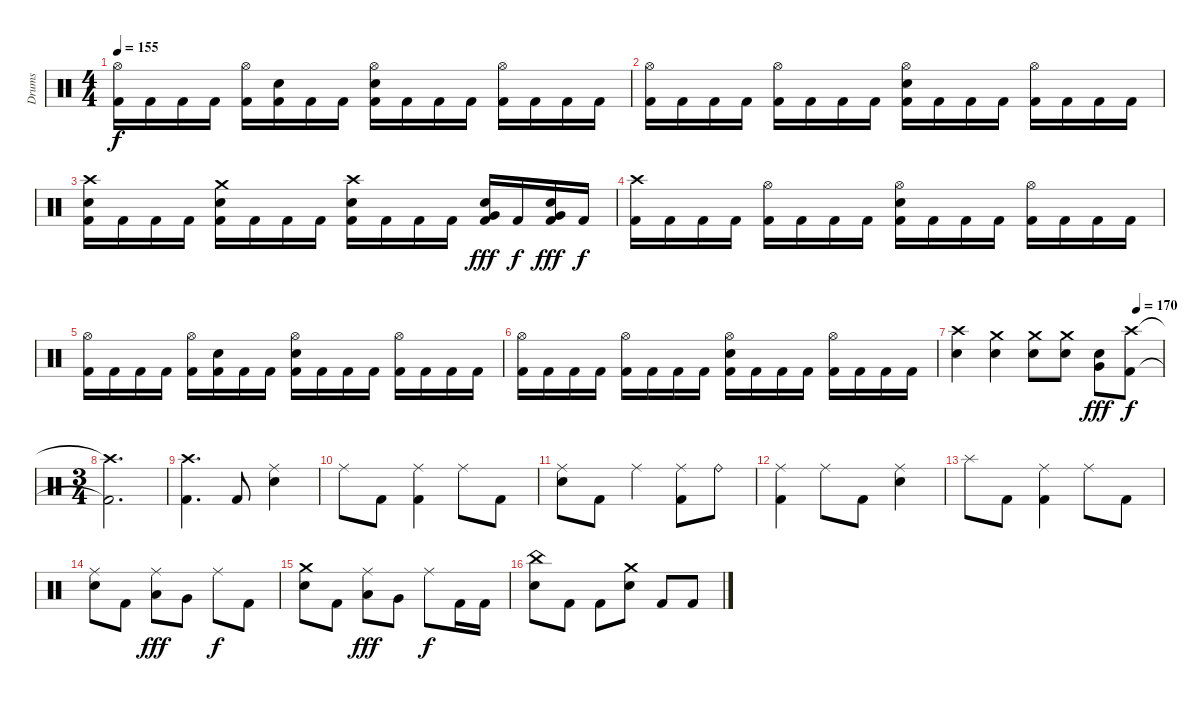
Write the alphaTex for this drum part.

\track ("Drums" "Drums") {instrument percussion}
\staff {score}
\articulation defaults
\ts (4 4)
\tempo 155
\clef neutral
\ks c
("Hi-Hat (open)" "Kick (hit) 2").16{dy f} "Kick (hit) 2".16 "Kick (hit) 2".16 "Kick (hit) 2".16 ("Hi-Hat (open)" "Kick (hit) 2").16 ("Electric Snare (hit)" "Kick (hit) 2").16 "Kick (hit) 2".16 "Kick (hit) 2".16 ("Hi-Hat (open)" "Electric Snare (hit)" "Kick (hit) 2").16 "Kick (hit) 2".16 "Kick (hit) 2".16 "Kick (hit) 2".16 ("Hi-Hat (open)" "Kick (hit) 2").16 "Kick (hit) 2".16 "Kick (hit) 2".16 "Kick (hit) 2".16 |
("Hi-Hat (open)" "Kick (hit) 2").16 "Kick (hit) 2".16 "Kick (hit) 2".16 "Kick (hit) 2".16 ("Hi-Hat (open)" "Kick (hit) 2").16 "Kick (hit) 2".16 "Kick (hit) 2".16 "Kick (hit) 2".16 ("Hi-Hat (open)" "Electric Snare (hit)" "Kick (hit) 2").16 "Kick (hit) 2".16 "Kick (hit) 2".16 "Kick (hit) 2".16 ("Hi-Hat (open)" "Kick (hit) 2").16 "Kick (hit) 2".16 "Kick (hit) 2".16 "Kick (hit) 2".16 |
("Crash high (hit)" "Electric Snare (hit)" "Kick (hit) 2").16 "Kick (hit) 2".16 "Kick (hit) 2".16 "Kick (hit) 2".16 ("Crash medium (hit)" "Electric Snare (hit)" "Kick (hit) 2").16 "Kick (hit) 2".16 "Kick (hit) 2".16 "Kick (hit) 2".16 ("Crash high (hit)" "Electric Snare (hit)" "Kick (hit) 2").16 "Kick (hit) 2".16 "Kick (hit) 2".16 "Kick (hit) 2".16 ("Electric Snare (hit)" "Very Low Tom (hit)" "Kick (hit) 2").16{dy fff} "Kick (hit) 2".16{dy f} ("Electric Snare (hit)" "Very Low Tom (hit)" "Kick (hit) 2").16{dy fff} "Kick (hit) 2".16{dy f} |
("Crash high (hit)" "Kick (hit) 2").16 "Kick (hit) 2".16 "Kick (hit) 2".16 "Kick (hit) 2".16 ("Hi-Hat (open)" "Kick (hit) 2").16 "Kick (hit) 2".16 "Kick (hit) 2".16 "Kick (hit) 2".16 ("Hi-Hat (open)" "Electric Snare (hit)" "Kick (hit) 2").16 "Kick (hit) 2".16 "Kick (hit) 2".16 "Kick (hit) 2".16 ("Hi-Hat (open)" "Kick (hit) 2").16 "Kick (hit) 2".16 "Kick (hit) 2".16 "Kick (hit) 2".16 |
("Hi-Hat (open)" "Kick (hit) 2").16 "Kick (hit) 2".16 "Kick (hit) 2".16 "Kick (hit) 2".16 ("Hi-Hat (open)" "Kick (hit) 2").16 ("Electric Snare (hit)" "Kick (hit) 2").16 "Kick (hit) 2".16 "Kick (hit) 2".16 ("Hi-Hat (open)" "Electric Snare (hit)" "Kick (hit) 2").16 "Kick (hit) 2".16 "Kick (hit) 2".16 "Kick (hit) 2".16 ("Hi-Hat (open)" "Kick (hit) 2").16 "Kick (hit) 2".16 "Kick (hit) 2".16 "Kick (hit) 2".16 |
("Hi-Hat (open)" "Kick (hit) 2").16 "Kick (hit) 2".16 "Kick (hit) 2".16 "Kick (hit) 2".16 ("Hi-Hat (open)" "Kick (hit) 2").16 "Kick (hit) 2".16 "Kick (hit) 2".16 "Kick (hit) 2".16 ("Hi-Hat (open)" "Electric Snare (hit)" "Kick (hit) 2").16 "Kick (hit) 2".16 "Kick (hit) 2".16 "Kick (hit) 2".16 ("Hi-Hat (open)" "Kick (hit) 2").16 "Kick (hit) 2".16 "Kick (hit) 2".16 "Kick (hit) 2".16 |
\tempo (170 0.875)
("Crash high (hit)" "Electric Snare (hit)").4 ("Crash medium (hit)" "Electric Snare (hit)").4 ("Crash medium (hit)" "Electric Snare (hit)").8 ("Crash medium (hit)" "Electric Snare (hit)").8 ("Electric Snare (hit)" "Very Low Tom (hit)").8{dy fff} ("Crash high (hit)" "Kick (hit) 2").8{dy f} |
\ts (3 4)
("Crash high (hit)"{t} "Kick (hit) 2"{t}).2{d} |
("Crash high (hit)" "Kick (hit) 2").4{d} "Kick (hit) 2".8 ("Ride (middle)" "Electric Snare (hit)").4 |
"Ride (middle)".8 "Kick (hit) 2".8 ("Ride (middle)" "Kick (hit) 2").4 "Ride (middle)".8 "Kick (hit) 2".8 |
("Ride (middle)" "Electric Snare (hit)").8 "Kick (hit) 2".8 "Ride (middle)".4 ("Ride (middle)" "Kick (hit) 2").8 "Ride (bell)".8 |
("Ride (middle)" "Kick (hit) 2").4 "Ride (middle)".8 "Kick (hit) 2".8 ("Ride (middle)" "Electric Snare (hit)").4 |
"Splash (hit)".8 "Kick (hit) 2".8 ("Ride (middle)" "Kick (hit) 2").4 "Ride (middle)".8 "Kick (hit) 2".8 |
("Ride (middle)" "Electric Snare (hit)").8 "Kick (hit) 2".8 ("Ride (middle)" "Low Tom (hit)").8{dy fff} "Very Low Tom (hit)".8 "Ride (middle)".8{dy f} "Kick (hit) 2".8 |
("Crash medium (hit)" "Electric Snare (hit)").8 "Kick (hit) 2".8 ("Ride (middle)" "Low Tom (hit)").8{dy fff} "Very Low Tom (hit)".8 "Ride (middle)".8{dy f} "Kick (hit) 2".16 "Kick (hit) 2".16 |
("China (hit)" "Electric Snare (hit)").8 "Kick (hit) 2".8 "Kick (hit) 2".8 ("Crash medium (hit)" "Electric Snare (hit)").8 "Kick (hit) 2".8 "Kick (hit) 2".8
